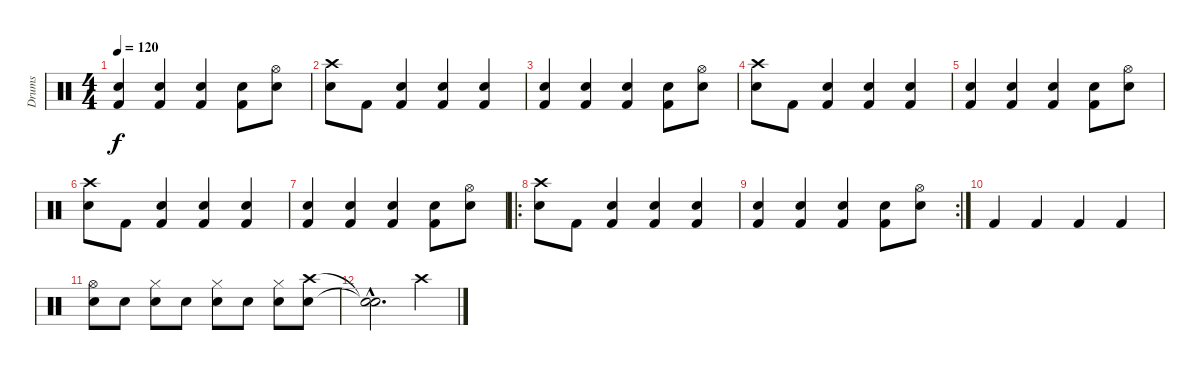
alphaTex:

\track ("Drums" "Drums") {instrument percussion}
\staff {score}
\articulation defaults
\ts (4 4)
\tempo 120
\clef neutral
\ks c
("Kick (hit) 2" "Electric Snare (hit)").4{dy f} ("Kick (hit) 2" "Electric Snare (hit)").4 ("Kick (hit) 2" "Electric Snare (hit)").4 ("Kick (hit) 2" "Electric Snare (hit)").8 ("Hi-Hat (open)" "Electric Snare (hit)").8 |
("Electric Snare (hit)" "Crash high (hit)").8 "Kick (hit) 2".8 ("Kick (hit) 2" "Electric Snare (hit)").4 ("Kick (hit) 2" "Electric Snare (hit)").4 ("Kick (hit) 2" "Electric Snare (hit)").4 |
("Kick (hit) 2" "Electric Snare (hit)").4 ("Kick (hit) 2" "Electric Snare (hit)").4 ("Kick (hit) 2" "Electric Snare (hit)").4 ("Kick (hit) 2" "Electric Snare (hit)").8 ("Hi-Hat (open)" "Electric Snare (hit)").8 |
("Electric Snare (hit)" "Crash high (hit)").8 "Kick (hit) 2".8 ("Kick (hit) 2" "Electric Snare (hit)").4 ("Kick (hit) 2" "Electric Snare (hit)").4 ("Kick (hit) 2" "Electric Snare (hit)").4 |
("Kick (hit) 2" "Electric Snare (hit)").4 ("Kick (hit) 2" "Electric Snare (hit)").4 ("Kick (hit) 2" "Electric Snare (hit)").4 ("Kick (hit) 2" "Electric Snare (hit)").8 ("Hi-Hat (open)" "Electric Snare (hit)").8 |
("Electric Snare (hit)" "Crash high (hit)").8 "Kick (hit) 2".8 ("Kick (hit) 2" "Electric Snare (hit)").4 ("Kick (hit) 2" "Electric Snare (hit)").4 ("Kick (hit) 2" "Electric Snare (hit)").4 |
("Kick (hit) 2" "Electric Snare (hit)").4 ("Kick (hit) 2" "Electric Snare (hit)").4 ("Kick (hit) 2" "Electric Snare (hit)").4 ("Kick (hit) 2" "Electric Snare (hit)").8 ("Hi-Hat (open)" "Electric Snare (hit)").8 |
\ro
("Electric Snare (hit)" "Crash high (hit)").8 "Kick (hit) 2".8 ("Kick (hit) 2" "Electric Snare (hit)").4 ("Kick (hit) 2" "Electric Snare (hit)").4 ("Kick (hit) 2" "Electric Snare (hit)").4 |
\rc 2
("Kick (hit) 2" "Electric Snare (hit)").4 ("Kick (hit) 2" "Electric Snare (hit)").4 ("Kick (hit) 2" "Electric Snare (hit)").4 ("Kick (hit) 2" "Electric Snare (hit)").8 ("Hi-Hat (open)" "Electric Snare (hit)").8 |
"Kick (hit) 2".4 "Kick (hit) 2".4 "Kick (hit) 2".4 "Kick (hit) 2".4 |
("Electric Snare (hit)" "Hi-Hat (open)").8 "Electric Snare (hit)".8 ("Electric Snare (hit)" "Hi-Hat (closed)").8 "Electric Snare (hit)".8 ("Electric Snare (hit)" "Hi-Hat (closed)").8 "Electric Snare (hit)".8 ("Electric Snare (hit)" "Hi-Hat (closed)").8 ("Crash high (hit)" "Electric Snare (hit)").8 |
("Snare (hit)"{hac t} "Snare (hit)"{hac t}).2{d} "Crash high (hit)".4
